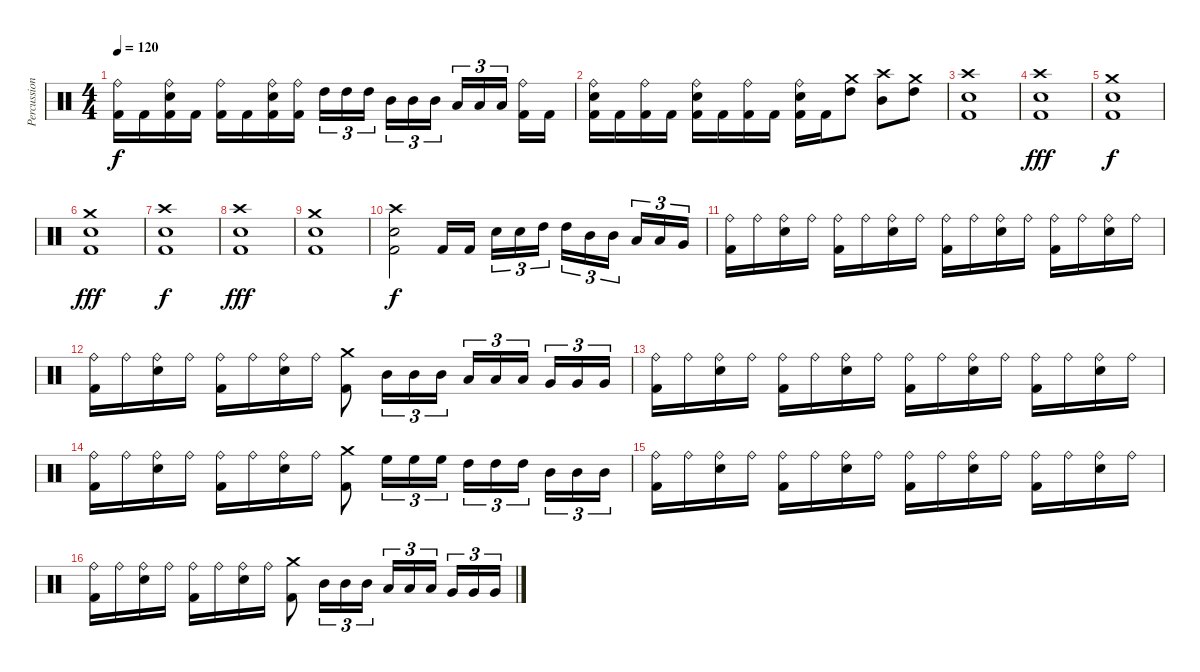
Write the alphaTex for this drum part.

\track ("Percussion" "Percussion") {instrument percussion}
\staff {score}
\articulation defaults
\ts (4 4)
\tempo 120
\clef neutral
\ks c
("Ride (bell)" "Kick (hit) 2").16{dy f} "Kick (hit) 2".16 ("Ride (bell)" "Electric Snare (hit)" "Kick (hit) 2").16 "Kick (hit) 2".16 ("Ride (bell)" "Kick (hit) 2").16 "Kick (hit) 2".16 ("Ride (bell)" "Electric Snare (hit)" "Kick (hit) 2").16 ("Ride (bell)" "Kick (hit) 2").16 "High Tom (hit)".16{tu (3 2)} "High Tom (hit)".16{tu (3 2)} "High Tom (hit)".16{tu (3 2)} "Mid Tom (hit)".16{tu (3 2)} "Mid Tom (hit)".16{tu (3 2)} "Mid Tom (hit)".16{tu (3 2)} "Low Tom (hit)".16{tu (3 2)} "Low Tom (hit)".16{tu (3 2)} "Low Tom (hit)".16{tu (3 2)} ("Ride (bell)" "Kick (hit) 2").16 "Kick (hit) 2".16 |
("Ride (bell)" "Electric Snare (hit)" "Kick (hit) 2").16 "Kick (hit) 2".16 ("Ride (bell)" "Kick (hit) 2").16 "Kick (hit) 2".16 ("Ride (bell)" "Electric Snare (hit)" "Kick (hit) 2").16 "Kick (hit) 2".16 ("Ride (bell)" "Kick (hit) 2").16 "Kick (hit) 2".16 ("Ride (bell)" "Electric Snare (hit)" "Kick (hit) 2").16 "Kick (hit) 2".16 ("Crash medium (hit)" "High Tom (hit)").8 ("Crash high (hit)" "Mid Tom (hit)").8 ("Crash medium (hit)" "High Tom (hit)").8 |
("Crash high (hit)" "Electric Snare (hit)" "Kick (hit) 2").1 |
("Crash high (hit)" "Electric Snare (hit)" "Kick (hit) 2").1{dy fff} |
("Crash medium (hit)" "Electric Snare (hit)" "Kick (hit) 2").1{dy f} |
("Crash medium (hit)" "Electric Snare (hit)" "Kick (hit) 2").1{dy fff} |
("Crash high (hit)" "Electric Snare (hit)" "Kick (hit) 2").1{dy f} |
("Crash high (hit)" "Electric Snare (hit)" "Kick (hit) 2").1{dy fff} |
("Crash medium (hit)" "Electric Snare (hit)" "Kick (hit) 2").1 |
("Crash high (hit)" "Electric Snare (hit)" "Kick (hit) 2").2{dy f} "Kick (hit) 2".16 "Kick (hit) 2".16 "Electric Snare (hit)".16{tu (3 2)} "Electric Snare (hit)".16{tu (3 2)} "High Tom (hit)".16{tu (3 2)} "High Tom (hit)".16{tu (3 2)} "Mid Tom (hit)".16{tu (3 2)} "Mid Tom (hit)".16{tu (3 2)} "Low Tom (hit)".16{tu (3 2)} "Low Tom (hit)".16{tu (3 2)} "Very Low Tom (hit)".16{tu (3 2)} |
("Ride (bell)" "Kick (hit) 2").16 "Ride (bell)".16 ("Ride (bell)" "Electric Snare (hit)").16 "Ride (bell)".16 ("Ride (bell)" "Kick (hit) 2").16 "Ride (bell)".16 ("Ride (bell)" "Electric Snare (hit)").16 "Ride (bell)".16 ("Ride (bell)" "Kick (hit) 2").16 "Ride (bell)".16 ("Ride (bell)" "Electric Snare (hit)").16 "Ride (bell)".16 ("Ride (bell)" "Kick (hit) 2").16 "Ride (bell)".16 ("Ride (bell)" "Electric Snare (hit)").16 "Ride (bell)".16 |
("Ride (bell)" "Kick (hit) 2").16 "Ride (bell)".16 ("Ride (bell)" "Electric Snare (hit)").16 "Ride (bell)".16 ("Ride (bell)" "Kick (hit) 2").16 "Ride (bell)".16 ("Ride (bell)" "Electric Snare (hit)").16 "Ride (bell)".16 ("Crash medium (hit)" "Kick (hit) 2").8 "Mid Tom (hit)".16{tu (3 2)} "Mid Tom (hit)".16{tu (3 2)} "Mid Tom (hit)".16{tu (3 2)} "Low Tom (hit)".16{tu (3 2)} "Low Tom (hit)".16{tu (3 2)} "Low Tom (hit)".16{tu (3 2)} "Very Low Tom (hit)".16{tu (3 2)} "Very Low Tom (hit)".16{tu (3 2)} "Very Low Tom (hit)".16{tu (3 2)} |
("Ride (bell)" "Kick (hit) 2").16 "Ride (bell)".16 ("Ride (bell)" "Electric Snare (hit)").16 "Ride (bell)".16 ("Ride (bell)" "Kick (hit) 2").16 "Ride (bell)".16 ("Ride (bell)" "Electric Snare (hit)").16 "Ride (bell)".16 ("Ride (bell)" "Kick (hit) 2").16 "Ride (bell)".16 ("Ride (bell)" "Electric Snare (hit)").16 "Ride (bell)".16 ("Ride (bell)" "Kick (hit) 2").16 "Ride (bell)".16 ("Ride (bell)" "Electric Snare (hit)").16 "Ride (bell)".16 |
("Ride (bell)" "Kick (hit) 2").16 "Ride (bell)".16 ("Ride (bell)" "Electric Snare (hit)").16 "Ride (bell)".16 ("Ride (bell)" "Kick (hit) 2").16 "Ride (bell)".16 ("Ride (bell)" "Electric Snare (hit)").16 "Ride (bell)".16 ("Crash medium (hit)" "Kick (hit) 2").8 "High Floor Tom (hit)".16{tu (3 2)} "High Floor Tom (hit)".16{tu (3 2)} "High Floor Tom (hit)".16{tu (3 2)} "High Tom (hit)".16{tu (3 2)} "High Tom (hit)".16{tu (3 2)} "High Tom (hit)".16{tu (3 2)} "Mid Tom (hit)".16{tu (3 2)} "Mid Tom (hit)".16{tu (3 2)} "Mid Tom (hit)".16{tu (3 2)} |
("Ride (bell)" "Kick (hit) 2").16 "Ride (bell)".16 ("Ride (bell)" "Electric Snare (hit)").16 "Ride (bell)".16 ("Ride (bell)" "Kick (hit) 2").16 "Ride (bell)".16 ("Ride (bell)" "Electric Snare (hit)").16 "Ride (bell)".16 ("Ride (bell)" "Kick (hit) 2").16 "Ride (bell)".16 ("Ride (bell)" "Electric Snare (hit)").16 "Ride (bell)".16 ("Ride (bell)" "Kick (hit) 2").16 "Ride (bell)".16 ("Ride (bell)" "Electric Snare (hit)").16 "Ride (bell)".16 |
("Ride (bell)" "Kick (hit) 2").16 "Ride (bell)".16 ("Ride (bell)" "Electric Snare (hit)").16 "Ride (bell)".16 ("Ride (bell)" "Kick (hit) 2").16 "Ride (bell)".16 ("Ride (bell)" "Electric Snare (hit)").16 "Ride (bell)".16 ("Crash medium (hit)" "Kick (hit) 2").8 "Mid Tom (hit)".16{tu (3 2)} "Mid Tom (hit)".16{tu (3 2)} "Mid Tom (hit)".16{tu (3 2)} "Low Tom (hit)".16{tu (3 2)} "Low Tom (hit)".16{tu (3 2)} "Low Tom (hit)".16{tu (3 2)} "Very Low Tom (hit)".16{tu (3 2)} "Very Low Tom (hit)".16{tu (3 2)} "Very Low Tom (hit)".16{tu (3 2)}
